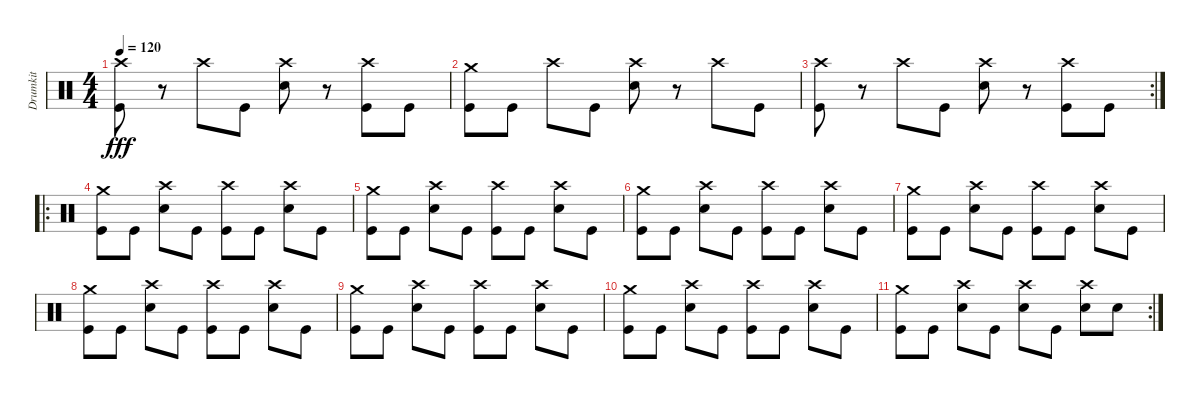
\track ("Drumkit" "Drumkit") {instrument percussion}
\staff {score}
\articulation defaults
\ts (4 4)
\tempo 120
\clef neutral
\ks c
("Kick (hit)" "Crash high (hit)").8{dy fff} r.8 "Crash high (hit)".8 "Kick (hit)".8 ("Snare (hit) 2" "Crash high (hit)").8 r.8 ("Kick (hit)" "Crash high (hit)").8 "Kick (hit)".8 |
("Kick (hit)" "Crash medium (hit)").8 "Kick (hit)".8 "Crash high (hit)".8 "Kick (hit)".8 ("Snare (hit) 2" "Crash high (hit)").8 r.8 "Crash high (hit)".8 "Kick (hit)".8 |
\rc 2
("Kick (hit)" "Crash high (hit)").8 r.8 "Crash high (hit)".8 "Kick (hit)".8 ("Snare (hit) 2" "Crash high (hit)").8 r.8 ("Kick (hit)" "Crash high (hit)").8 "Kick (hit)".8 |
\ro
("Kick (hit)" "Crash medium (hit)").8 "Kick (hit)".8 ("Crash high (hit)" "Snare (hit) 2").8 "Kick (hit)".8 ("Crash high (hit)" "Kick (hit)").8 "Kick (hit)".8 ("Crash high (hit)" "Snare (hit) 2").8 "Kick (hit)".8 |
("Kick (hit)" "Crash medium (hit)").8 "Kick (hit)".8 ("Crash high (hit)" "Snare (hit) 2").8 "Kick (hit)".8 ("Crash high (hit)" "Kick (hit)").8 "Kick (hit)".8 ("Crash high (hit)" "Snare (hit) 2").8 "Kick (hit)".8 |
("Kick (hit)" "Crash medium (hit)").8 "Kick (hit)".8 ("Crash high (hit)" "Snare (hit) 2").8 "Kick (hit)".8 ("Crash high (hit)" "Kick (hit)").8 "Kick (hit)".8 ("Crash high (hit)" "Snare (hit) 2").8 "Kick (hit)".8 |
("Kick (hit)" "Crash medium (hit)").8 "Kick (hit)".8 ("Crash high (hit)" "Snare (hit) 2").8 "Kick (hit)".8 ("Crash high (hit)" "Kick (hit)").8 "Kick (hit)".8 ("Crash high (hit)" "Snare (hit) 2").8 "Kick (hit)".8 |
("Kick (hit)" "Crash medium (hit)").8 "Kick (hit)".8 ("Crash high (hit)" "Snare (hit) 2").8 "Kick (hit)".8 ("Crash high (hit)" "Kick (hit)").8 "Kick (hit)".8 ("Crash high (hit)" "Snare (hit) 2").8 "Kick (hit)".8 |
("Kick (hit)" "Crash medium (hit)").8 "Kick (hit)".8 ("Crash high (hit)" "Snare (hit) 2").8 "Kick (hit)".8 ("Crash high (hit)" "Kick (hit)").8 "Kick (hit)".8 ("Crash high (hit)" "Snare (hit) 2").8 "Kick (hit)".8 |
("Kick (hit)" "Crash medium (hit)").8 "Kick (hit)".8 ("Crash high (hit)" "Snare (hit) 2").8 "Kick (hit)".8 ("Crash high (hit)" "Kick (hit)").8 "Kick (hit)".8 ("Crash high (hit)" "Snare (hit) 2").8 "Kick (hit)".8 |
\rc 2
("Kick (hit)" "Crash medium (hit)").8 "Kick (hit)".8 ("Crash high (hit)" "Snare (hit) 2").8 "Kick (hit)".8 ("Crash high (hit)" "Snare (hit) 2").8 "Kick (hit)".8 ("Crash high (hit)" "Snare (hit) 2").8 "Snare (hit) 2".8
